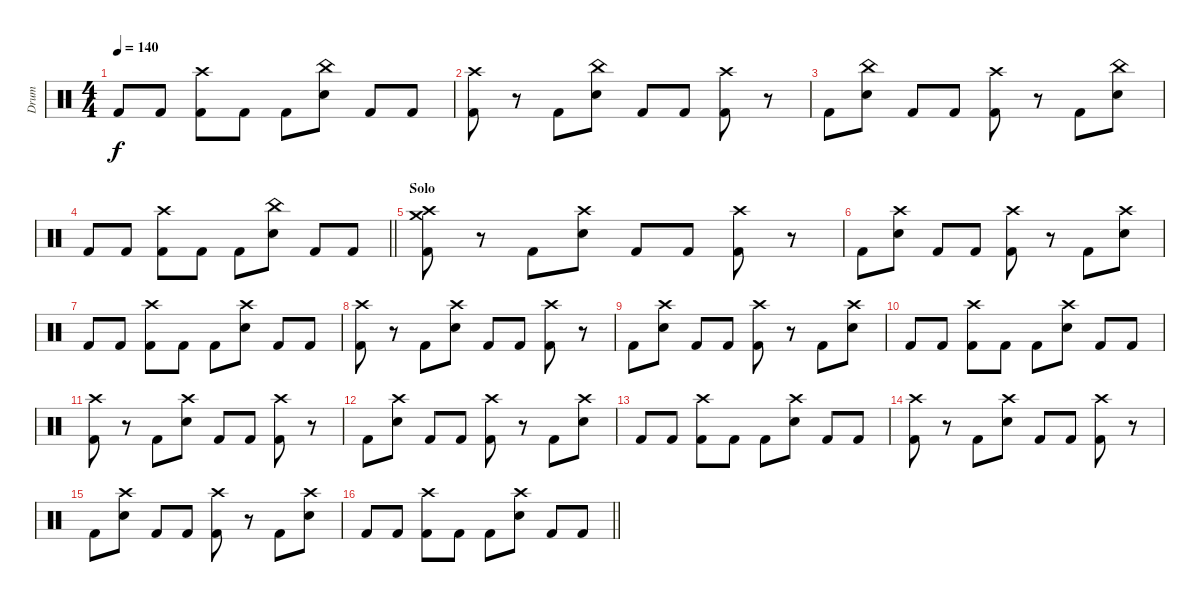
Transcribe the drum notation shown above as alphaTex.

\track ("Drum" "Drum") {instrument percussion}
\staff {score}
\articulation defaults
\ts (4 4)
\tempo 140
\clef neutral
\ks c "Kick (hit) 2".8{dy f} "Kick (hit) 2".8
("Crash high (hit)" "Kick (hit) 2").8 "Kick (hit) 2".8 "Kick (hit) 2".8 ("China (hit)" "Snare (hit) 2").8 "Kick (hit) 2".8 "Kick (hit) 2".8 |
("Crash high (hit)" "Kick (hit) 2").8 r.8 "Kick (hit) 2".8 ("China (hit)" "Snare (hit) 2").8 "Kick (hit) 2".8 "Kick (hit) 2".8 ("Crash high (hit)" "Kick (hit) 2").8 r.8 |
"Kick (hit) 2".8 ("China (hit)" "Snare (hit) 2").8 "Kick (hit) 2".8 "Kick (hit) 2".8 ("Crash high (hit)" "Kick (hit) 2").8 r.8 "Kick (hit) 2".8 ("China (hit)" "Snare (hit) 2").8 |
\barLineRight lightlight "Kick (hit) 2".8 "Kick (hit) 2".8
("Crash high (hit)" "Kick (hit) 2").8 "Kick (hit) 2".8 "Kick (hit) 2".8 ("China (hit)" "Snare (hit) 2").8 "Kick (hit) 2".8 "Kick (hit) 2".8 |
\section ("" "Solo")
("Crash high (hit)" "Crash medium (hit)" "Kick (hit) 2").8 r.8 "Kick (hit) 2".8 ("Crash high (hit)" "Snare (hit) 2").8 "Kick (hit) 2".8 "Kick (hit) 2".8 ("Crash high (hit)" "Kick (hit) 2").8 r.8 |
"Kick (hit) 2".8 ("Crash high (hit)" "Snare (hit) 2").8 "Kick (hit) 2".8 "Kick (hit) 2".8 ("Crash high (hit)" "Kick (hit) 2").8 r.8 "Kick (hit) 2".8 ("Crash high (hit)" "Snare (hit) 2").8 |
"Kick (hit) 2".8 "Kick (hit) 2".8 ("Crash high (hit)" "Kick (hit) 2").8 "Kick (hit) 2".8 "Kick (hit) 2".8 ("Crash high (hit)" "Snare (hit) 2").8 "Kick (hit) 2".8 "Kick (hit) 2".8 |
("Crash high (hit)" "Kick (hit) 2").8 r.8 "Kick (hit) 2".8 ("Crash high (hit)" "Snare (hit) 2").8 "Kick (hit) 2".8 "Kick (hit) 2".8 ("Crash high (hit)" "Kick (hit) 2").8 r.8 |
"Kick (hit) 2".8 ("Crash high (hit)" "Snare (hit) 2").8 "Kick (hit) 2".8 "Kick (hit) 2".8 ("Crash high (hit)" "Kick (hit) 2").8 r.8 "Kick (hit) 2".8 ("Crash high (hit)" "Snare (hit) 2").8 |
"Kick (hit) 2".8 "Kick (hit) 2".8 ("Crash high (hit)" "Kick (hit) 2").8 "Kick (hit) 2".8 "Kick (hit) 2".8 ("Crash high (hit)" "Snare (hit) 2").8 "Kick (hit) 2".8 "Kick (hit) 2".8 |
("Crash high (hit)" "Kick (hit) 2").8 r.8 "Kick (hit) 2".8 ("Crash high (hit)" "Snare (hit) 2").8 "Kick (hit) 2".8 "Kick (hit) 2".8 ("Crash high (hit)" "Kick (hit) 2").8 r.8 |
"Kick (hit) 2".8 ("Crash high (hit)" "Snare (hit) 2").8 "Kick (hit) 2".8 "Kick (hit) 2".8 ("Crash high (hit)" "Kick (hit) 2").8 r.8 "Kick (hit) 2".8 ("Crash high (hit)" "Snare (hit) 2").8 |
"Kick (hit) 2".8 "Kick (hit) 2".8 ("Crash high (hit)" "Kick (hit) 2").8 "Kick (hit) 2".8 "Kick (hit) 2".8 ("Crash high (hit)" "Snare (hit) 2").8 "Kick (hit) 2".8 "Kick (hit) 2".8 |
("Crash high (hit)" "Kick (hit) 2").8 r.8 "Kick (hit) 2".8 ("Crash high (hit)" "Snare (hit) 2").8 "Kick (hit) 2".8 "Kick (hit) 2".8 ("Crash high (hit)" "Kick (hit) 2").8 r.8 |
"Kick (hit) 2".8 ("Crash high (hit)" "Snare (hit) 2").8 "Kick (hit) 2".8 "Kick (hit) 2".8 ("Crash high (hit)" "Kick (hit) 2").8 r.8 "Kick (hit) 2".8 ("Crash high (hit)" "Snare (hit) 2").8 |
\barLineRight lightlight "Kick (hit) 2".8 "Kick (hit) 2".8
("Crash high (hit)" "Kick (hit) 2").8 "Kick (hit) 2".8 "Kick (hit) 2".8 ("Crash high (hit)" "Snare (hit) 2").8 "Kick (hit) 2".8 "Kick (hit) 2".8
